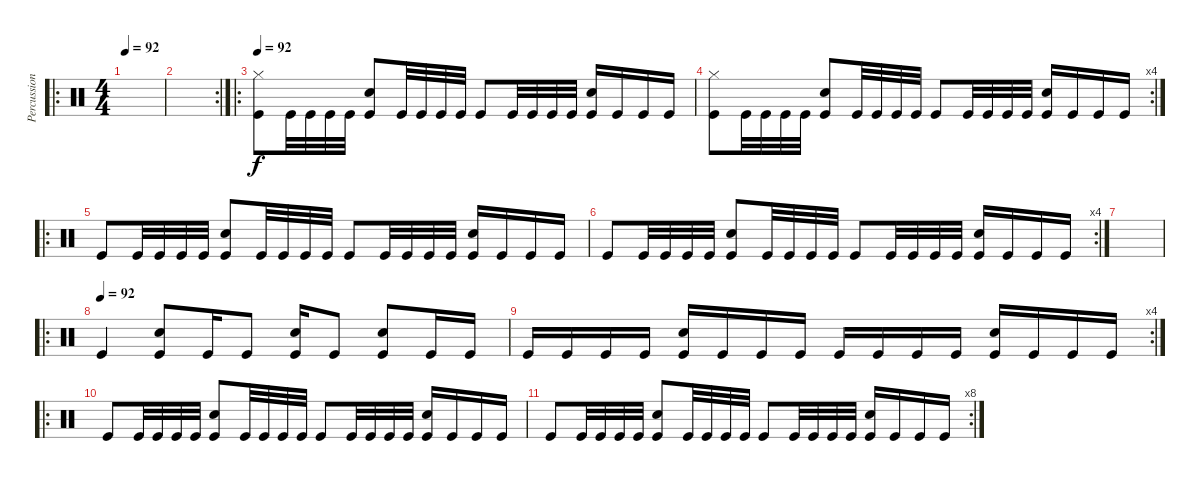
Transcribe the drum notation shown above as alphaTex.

\track ("Percussion" "Percussion") {instrument percussion}
\staff {score}
\articulation defaults
\ro
\ts (4 4)
\tempo 92
\clef neutral
\ks c
|
\rc 2
|
\ro
\tempo 92
("Hi-Hat (closed)" "Kick (hit)").8 "Kick (hit)".32 "Kick (hit)".32 "Kick (hit)".32 "Kick (hit)".32 ("Electric Snare (hit)" "Kick (hit)").8 "Kick (hit)".32 "Kick (hit)".32 "Kick (hit)".32 "Kick (hit)".32 "Kick (hit)".8 "Kick (hit)".32 "Kick (hit)".32 "Kick (hit)".32 "Kick (hit)".32 ("Electric Snare (hit)" "Kick (hit)").16 "Kick (hit)".16 "Kick (hit)".16 "Kick (hit)".16 |
\rc 4
("Hi-Hat (closed)" "Kick (hit)").8 "Kick (hit)".32 "Kick (hit)".32 "Kick (hit)".32 "Kick (hit)".32 ("Electric Snare (hit)" "Kick (hit)").8 "Kick (hit)".32 "Kick (hit)".32 "Kick (hit)".32 "Kick (hit)".32 "Kick (hit)".8 "Kick (hit)".32 "Kick (hit)".32 "Kick (hit)".32 "Kick (hit)".32 ("Electric Snare (hit)" "Kick (hit)").16 "Kick (hit)".16 "Kick (hit)".16 "Kick (hit)".16 |
\ro "Kick (hit)".8 "Kick (hit)".32 "Kick (hit)".32 "Kick (hit)".32 "Kick (hit)".32
("Electric Snare (hit)" "Kick (hit)").8 "Kick (hit)".32 "Kick (hit)".32 "Kick (hit)".32 "Kick (hit)".32 "Kick (hit)".8 "Kick (hit)".32 "Kick (hit)".32 "Kick (hit)".32 "Kick (hit)".32 ("Electric Snare (hit)" "Kick (hit)").16 "Kick (hit)".16 "Kick (hit)".16 "Kick (hit)".16 |
\rc 4 "Kick (hit)".8 "Kick (hit)".32 "Kick (hit)".32 "Kick (hit)".32 "Kick (hit)".32
("Electric Snare (hit)" "Kick (hit)").8 "Kick (hit)".32 "Kick (hit)".32 "Kick (hit)".32 "Kick (hit)".32 "Kick (hit)".8 "Kick (hit)".32 "Kick (hit)".32 "Kick (hit)".32 "Kick (hit)".32 ("Electric Snare (hit)" "Kick (hit)").16 "Kick (hit)".16 "Kick (hit)".16 "Kick (hit)".16 |
|
\ro
\tempo (92)
"Kick (hit)".4 ("Electric Snare (hit)" "Kick (hit)").8 "Kick (hit)".16 "Kick (hit)".8 ("Electric Snare (hit)" "Kick (hit)").16 "Kick (hit)".8 ("Electric Snare (hit)" "Kick (hit)").8 "Kick (hit)".16 "Kick (hit)".16 |
\rc 4 "Kick (hit)".16 "Kick (hit)".16 "Kick (hit)".16 "Kick (hit)".16
("Electric Snare (hit)" "Kick (hit)").16 "Kick (hit)".16 "Kick (hit)".16 "Kick (hit)".16 "Kick (hit)".16 "Kick (hit)".16 "Kick (hit)".16 "Kick (hit)".16 ("Electric Snare (hit)" "Kick (hit)").16 "Kick (hit)".16 "Kick (hit)".16 "Kick (hit)".16 |
\ro "Kick (hit)".8 "Kick (hit)".32 "Kick (hit)".32 "Kick (hit)".32 "Kick (hit)".32
("Electric Snare (hit)" "Kick (hit)").8 "Kick (hit)".32 "Kick (hit)".32 "Kick (hit)".32 "Kick (hit)".32 "Kick (hit)".8 "Kick (hit)".32 "Kick (hit)".32 "Kick (hit)".32 "Kick (hit)".32 ("Electric Snare (hit)" "Kick (hit)").16 "Kick (hit)".16 "Kick (hit)".16 "Kick (hit)".16 |
\rc 8 "Kick (hit)".8 "Kick (hit)".32 "Kick (hit)".32 "Kick (hit)".32 "Kick (hit)".32
("Electric Snare (hit)" "Kick (hit)").8 "Kick (hit)".32 "Kick (hit)".32 "Kick (hit)".32 "Kick (hit)".32 "Kick (hit)".8 "Kick (hit)".32 "Kick (hit)".32 "Kick (hit)".32 "Kick (hit)".32 ("Electric Snare (hit)" "Kick (hit)").16 "Kick (hit)".16 "Kick (hit)".16 "Kick (hit)".16
